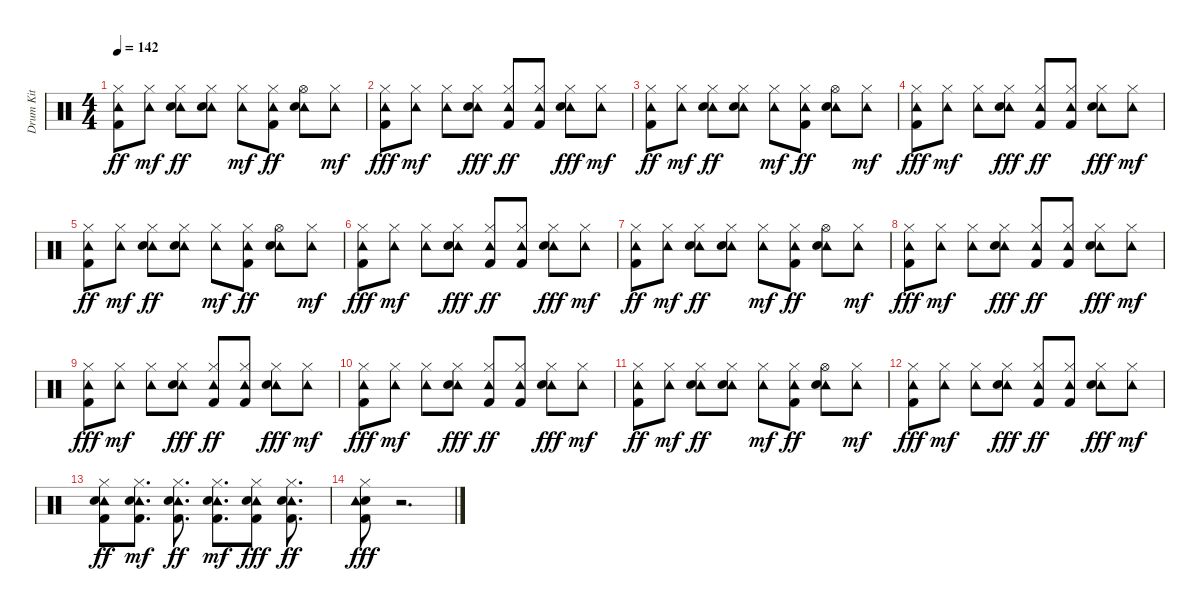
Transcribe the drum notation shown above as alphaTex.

\track ("Drum Kit" "Drum Kit") {instrument percussion}
\staff {score}
\articulation defaults
\ts (4 4)
\tempo 142
\clef neutral
\ks c
("Tambourine (hit)" "Hi-Hat (closed)" "Kick (hit) 2").8{dy ff} ("Tambourine (hit)" "Hi-Hat (closed)").8{dy mf} ("Tambourine (hit)" "Hi-Hat (closed)" "Electric Snare (hit)").8{dy ff} ("Tambourine (hit)" "Hi-Hat (closed)" "Electric Snare (hit)").8 ("Tambourine (hit)" "Hi-Hat (closed)").8{dy mf} ("Tambourine (hit)" "Hi-Hat (closed)" "Kick (hit) 2").8{dy ff} ("Tambourine (hit)" "Hi-Hat (open)" "Electric Snare (hit)").8 ("Tambourine (hit)" "Hi-Hat (closed)").8{dy mf} |
("Hi-Hat (closed)" "Tambourine (hit)" "Kick (hit) 2").8{dy fff} ("Tambourine (hit)" "Hi-Hat (closed)").8{dy mf} ("Tambourine (hit)" "Hi-Hat (closed)").8 ("Tambourine (hit)" "Hi-Hat (closed)" "Electric Snare (hit)").8{dy fff} ("Tambourine (hit)" "Hi-Hat (closed)" "Kick (hit) 2").8{dy ff} ("Tambourine (hit)" "Hi-Hat (closed)" "Kick (hit) 2").8 ("Tambourine (hit)" "Hi-Hat (closed)" "Electric Snare (hit)").8{dy fff} ("Tambourine (hit)" "Hi-Hat (closed)").8{dy mf} |
("Tambourine (hit)" "Hi-Hat (closed)" "Kick (hit) 2").8{dy ff} ("Tambourine (hit)" "Hi-Hat (closed)").8{dy mf} ("Tambourine (hit)" "Hi-Hat (closed)" "Electric Snare (hit)").8{dy ff} ("Tambourine (hit)" "Hi-Hat (closed)" "Electric Snare (hit)").8 ("Tambourine (hit)" "Hi-Hat (closed)").8{dy mf} ("Tambourine (hit)" "Hi-Hat (closed)" "Kick (hit) 2").8{dy ff} ("Tambourine (hit)" "Hi-Hat (open)" "Electric Snare (hit)").8 ("Tambourine (hit)" "Hi-Hat (closed)").8{dy mf} |
("Hi-Hat (closed)" "Tambourine (hit)" "Kick (hit) 2").8{dy fff} ("Tambourine (hit)" "Hi-Hat (closed)").8{dy mf} ("Tambourine (hit)" "Hi-Hat (closed)").8 ("Tambourine (hit)" "Hi-Hat (closed)" "Electric Snare (hit)").8{dy fff} ("Tambourine (hit)" "Hi-Hat (closed)" "Kick (hit) 2").8{dy ff} ("Tambourine (hit)" "Hi-Hat (closed)" "Kick (hit) 2").8 ("Tambourine (hit)" "Hi-Hat (closed)" "Electric Snare (hit)").8{dy fff} ("Tambourine (hit)" "Hi-Hat (closed)").8{dy mf} |
("Tambourine (hit)" "Hi-Hat (closed)" "Kick (hit) 2").8{dy ff} ("Tambourine (hit)" "Hi-Hat (closed)").8{dy mf} ("Tambourine (hit)" "Hi-Hat (closed)" "Electric Snare (hit)").8{dy ff} ("Tambourine (hit)" "Hi-Hat (closed)" "Electric Snare (hit)").8 ("Tambourine (hit)" "Hi-Hat (closed)").8{dy mf} ("Tambourine (hit)" "Hi-Hat (closed)" "Kick (hit) 2").8{dy ff} ("Tambourine (hit)" "Hi-Hat (open)" "Electric Snare (hit)").8 ("Tambourine (hit)" "Hi-Hat (closed)").8{dy mf} |
("Hi-Hat (closed)" "Tambourine (hit)" "Kick (hit) 2").8{dy fff} ("Tambourine (hit)" "Hi-Hat (closed)").8{dy mf} ("Tambourine (hit)" "Hi-Hat (closed)").8 ("Tambourine (hit)" "Hi-Hat (closed)" "Electric Snare (hit)").8{dy fff} ("Tambourine (hit)" "Hi-Hat (closed)" "Kick (hit) 2").8{dy ff} ("Tambourine (hit)" "Hi-Hat (closed)" "Kick (hit) 2").8 ("Tambourine (hit)" "Hi-Hat (closed)" "Electric Snare (hit)").8{dy fff} ("Tambourine (hit)" "Hi-Hat (closed)").8{dy mf} |
("Tambourine (hit)" "Hi-Hat (closed)" "Kick (hit) 2").8{dy ff} ("Tambourine (hit)" "Hi-Hat (closed)").8{dy mf} ("Tambourine (hit)" "Hi-Hat (closed)" "Electric Snare (hit)").8{dy ff} ("Tambourine (hit)" "Hi-Hat (closed)" "Electric Snare (hit)").8 ("Tambourine (hit)" "Hi-Hat (closed)").8{dy mf} ("Tambourine (hit)" "Hi-Hat (closed)" "Kick (hit) 2").8{dy ff} ("Tambourine (hit)" "Hi-Hat (open)" "Electric Snare (hit)").8 ("Tambourine (hit)" "Hi-Hat (closed)").8{dy mf} |
("Hi-Hat (closed)" "Tambourine (hit)" "Kick (hit) 2").8{dy fff} ("Tambourine (hit)" "Hi-Hat (closed)").8{dy mf} ("Tambourine (hit)" "Hi-Hat (closed)").8 ("Tambourine (hit)" "Hi-Hat (closed)" "Electric Snare (hit)").8{dy fff} ("Tambourine (hit)" "Hi-Hat (closed)" "Kick (hit) 2").8{dy ff} ("Tambourine (hit)" "Hi-Hat (closed)" "Kick (hit) 2").8 ("Tambourine (hit)" "Hi-Hat (closed)" "Electric Snare (hit)").8{dy fff} ("Tambourine (hit)" "Hi-Hat (closed)").8{dy mf} |
("Hi-Hat (closed)" "Tambourine (hit)" "Kick (hit) 2").8{dy fff} ("Tambourine (hit)" "Hi-Hat (closed)").8{dy mf} ("Tambourine (hit)" "Hi-Hat (closed)").8 ("Tambourine (hit)" "Hi-Hat (closed)" "Electric Snare (hit)").8{dy fff} ("Tambourine (hit)" "Hi-Hat (closed)" "Kick (hit) 2").8{dy ff} ("Tambourine (hit)" "Hi-Hat (closed)" "Kick (hit) 2").8 ("Tambourine (hit)" "Hi-Hat (closed)" "Electric Snare (hit)").8{dy fff} ("Tambourine (hit)" "Hi-Hat (closed)").8{dy mf} |
("Hi-Hat (closed)" "Tambourine (hit)" "Kick (hit) 2").8{dy fff} ("Tambourine (hit)" "Hi-Hat (closed)").8{dy mf} ("Tambourine (hit)" "Hi-Hat (closed)").8 ("Tambourine (hit)" "Hi-Hat (closed)" "Electric Snare (hit)").8{dy fff} ("Tambourine (hit)" "Hi-Hat (closed)" "Kick (hit) 2").8{dy ff} ("Tambourine (hit)" "Hi-Hat (closed)" "Kick (hit) 2").8 ("Tambourine (hit)" "Hi-Hat (closed)" "Electric Snare (hit)").8{dy fff} ("Tambourine (hit)" "Hi-Hat (closed)").8{dy mf} |
("Tambourine (hit)" "Hi-Hat (closed)" "Kick (hit) 2").8{dy ff} ("Tambourine (hit)" "Hi-Hat (closed)").8{dy mf} ("Tambourine (hit)" "Hi-Hat (closed)" "Electric Snare (hit)").8{dy ff} ("Tambourine (hit)" "Hi-Hat (closed)" "Electric Snare (hit)").8 ("Tambourine (hit)" "Hi-Hat (closed)").8{dy mf} ("Tambourine (hit)" "Hi-Hat (closed)" "Kick (hit) 2").8{dy ff} ("Tambourine (hit)" "Hi-Hat (open)" "Electric Snare (hit)").8 ("Tambourine (hit)" "Hi-Hat (closed)").8{dy mf} |
("Hi-Hat (closed)" "Tambourine (hit)" "Kick (hit) 2").8{dy fff} ("Tambourine (hit)" "Hi-Hat (closed)").8{dy mf} ("Tambourine (hit)" "Hi-Hat (closed)").8 ("Tambourine (hit)" "Hi-Hat (closed)" "Electric Snare (hit)").8{dy fff} ("Tambourine (hit)" "Hi-Hat (closed)" "Kick (hit) 2").8{dy ff} ("Tambourine (hit)" "Hi-Hat (closed)" "Kick (hit) 2").8 ("Tambourine (hit)" "Hi-Hat (closed)" "Electric Snare (hit)").8{dy fff} ("Tambourine (hit)" "Hi-Hat (closed)").8{dy mf} |
("Tambourine (hit)" "Hi-Hat (closed)" "Electric Snare (hit)" "Kick (hit) 2").8{dy ff} ("Tambourine (hit)" "Kick (hit) 2" "Electric Snare (hit)" "Hi-Hat (closed)").8{d dy mf} ("Tambourine (hit)" "Hi-Hat (closed)" "Kick (hit) 2" "Electric Snare (hit)").8{d dy ff} ("Tambourine (hit)" "Kick (hit) 2" "Electric Snare (hit)" "Hi-Hat (closed)").8{d dy mf} ("Hi-Hat (closed)" "Tambourine (hit)" "Electric Snare (hit)" "Kick (hit) 2").8{dy fff} ("Tambourine (hit)" "Hi-Hat (closed)" "Electric Snare (hit)" "Kick (hit) 2").8{d dy ff} |
("Hi-Hat (closed)" "Electric Snare (hit)" "Tambourine (hit)" "Kick (hit) 2").8{dy fff} r.2{d}
